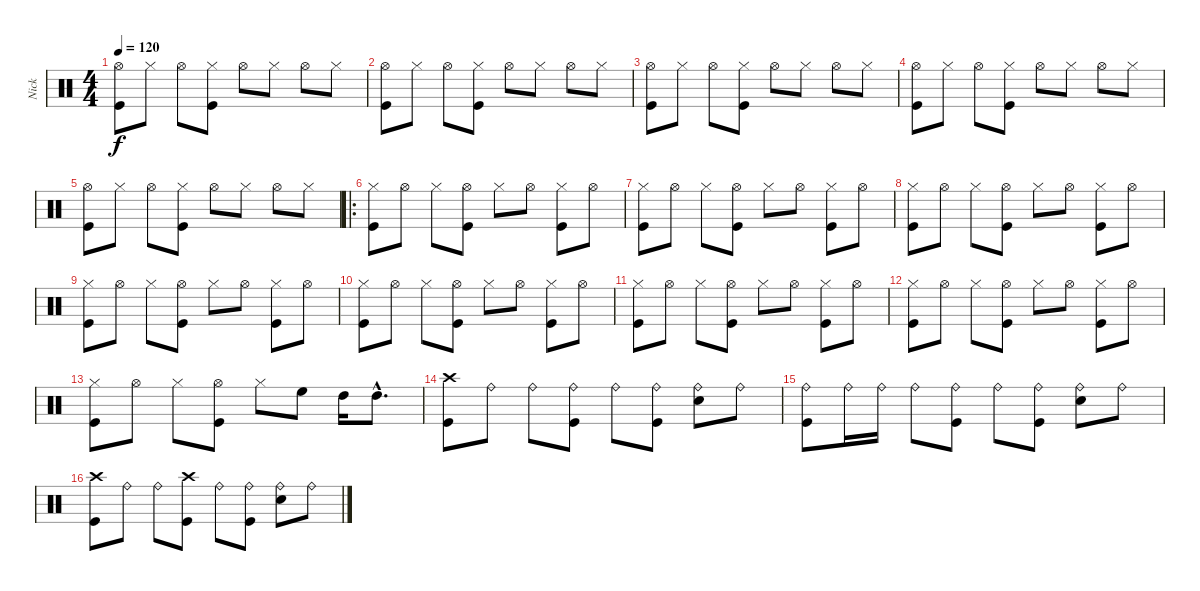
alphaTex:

\track ("Nick" "Nick") {instrument percussion}
\staff {score}
\articulation defaults
\ts (4 4)
\tempo 120
\clef neutral
\ks c
("Kick (hit)" "Hi-Hat (open)").8{dy f} "Hi-Hat (closed)".8 "Hi-Hat (open)".8 ("Kick (hit)" "Hi-Hat (closed)").8 "Hi-Hat (open)".8 "Hi-Hat (closed)".8 "Hi-Hat (open)".8 "Hi-Hat (closed)".8 |
("Kick (hit)" "Hi-Hat (open)").8 "Hi-Hat (closed)".8 "Hi-Hat (open)".8 ("Kick (hit)" "Hi-Hat (closed)").8 "Hi-Hat (open)".8 "Hi-Hat (closed)".8 "Hi-Hat (open)".8 "Hi-Hat (closed)".8 |
("Kick (hit)" "Hi-Hat (open)").8 "Hi-Hat (closed)".8 "Hi-Hat (open)".8 ("Kick (hit)" "Hi-Hat (closed)").8 "Hi-Hat (open)".8 "Hi-Hat (closed)".8 "Hi-Hat (open)".8 "Hi-Hat (closed)".8 |
("Kick (hit)" "Hi-Hat (open)").8 "Hi-Hat (closed)".8 "Hi-Hat (open)".8 ("Kick (hit)" "Hi-Hat (closed)").8 "Hi-Hat (open)".8 "Hi-Hat (closed)".8 "Hi-Hat (open)".8 "Hi-Hat (closed)".8 |
("Kick (hit)" "Hi-Hat (open)").8 "Hi-Hat (closed)".8 "Hi-Hat (open)".8 ("Kick (hit)" "Hi-Hat (closed)").8 "Hi-Hat (open)".8 "Hi-Hat (closed)".8 "Hi-Hat (open)".8 "Hi-Hat (closed)".8 |
\ro
("Kick (hit)" "Hi-Hat (closed)").8 "Hi-Hat (open)".8 "Hi-Hat (closed)".8 ("Kick (hit)" "Hi-Hat (open)").8 "Hi-Hat (closed)".8 "Hi-Hat (open)".8 ("Kick (hit)" "Hi-Hat (closed)").8 "Hi-Hat (open)".8 |
("Kick (hit)" "Hi-Hat (closed)").8 "Hi-Hat (open)".8 "Hi-Hat (closed)".8 ("Kick (hit)" "Hi-Hat (open)").8 "Hi-Hat (closed)".8 "Hi-Hat (open)".8 ("Kick (hit)" "Hi-Hat (closed)").8 "Hi-Hat (open)".8 |
("Kick (hit)" "Hi-Hat (closed)").8 "Hi-Hat (open)".8 "Hi-Hat (closed)".8 ("Kick (hit)" "Hi-Hat (open)").8 "Hi-Hat (closed)".8 "Hi-Hat (open)".8 ("Kick (hit)" "Hi-Hat (closed)").8 "Hi-Hat (open)".8 |
("Kick (hit)" "Hi-Hat (closed)").8 "Hi-Hat (open)".8 "Hi-Hat (closed)".8 ("Kick (hit)" "Hi-Hat (open)").8 "Hi-Hat (closed)".8 "Hi-Hat (open)".8 ("Kick (hit)" "Hi-Hat (closed)").8 "Hi-Hat (open)".8 |
("Kick (hit)" "Hi-Hat (closed)").8 "Hi-Hat (open)".8 "Hi-Hat (closed)".8 ("Kick (hit)" "Hi-Hat (open)").8 "Hi-Hat (closed)".8 "Hi-Hat (open)".8 ("Kick (hit)" "Hi-Hat (closed)").8 "Hi-Hat (open)".8 |
("Kick (hit)" "Hi-Hat (closed)").8 "Hi-Hat (open)".8 "Hi-Hat (closed)".8 ("Kick (hit)" "Hi-Hat (open)").8 "Hi-Hat (closed)".8 "Hi-Hat (open)".8 ("Kick (hit)" "Hi-Hat (closed)").8 "Hi-Hat (open)".8 |
("Kick (hit)" "Hi-Hat (closed)").8 "Hi-Hat (open)".8 "Hi-Hat (closed)".8 ("Kick (hit)" "Hi-Hat (open)").8 "Hi-Hat (closed)".8 "Hi-Hat (open)".8 ("Kick (hit)" "Hi-Hat (closed)").8 "Hi-Hat (open)".8 |
("Kick (hit)" "Hi-Hat (closed)").8 "Hi-Hat (open)".8 "Hi-Hat (closed)".8 ("Kick (hit)" "Hi-Hat (open)").8 "Hi-Hat (closed)".8 "High Floor Tom (hit)".8 "High Tom (hit)".16 "High Tom (hit)"{hac}.8{d} |
("Kick (hit)" "Crash high (hit)").8 "Ride (bell)".8 "Ride (bell)".8 ("Kick (hit)" "Ride (bell)").8 "Ride (bell)".8 ("Kick (hit)" "Ride (bell)").8 ("Ride (bell)" "Snare (hit) 2").8 "Ride (bell)".8 |
("Kick (hit)" "Ride (bell)").8 "Ride (bell)".16 "Ride (bell)".16 "Ride (bell)".8 ("Kick (hit)" "Ride (bell)").8 "Ride (bell)".8 ("Kick (hit)" "Ride (bell)").8 ("Ride (bell)" "Snare (hit) 2").8 "Ride (bell)".8 |
("Kick (hit)" "Crash high (hit)").8 "Ride (bell)".8 "Ride (bell)".8 ("Kick (hit)" "Crash high (hit)").8 "Ride (bell)".8 ("Kick (hit)" "Ride (bell)").8 ("Ride (bell)" "Snare (hit) 2").8 "Ride (bell)".8
